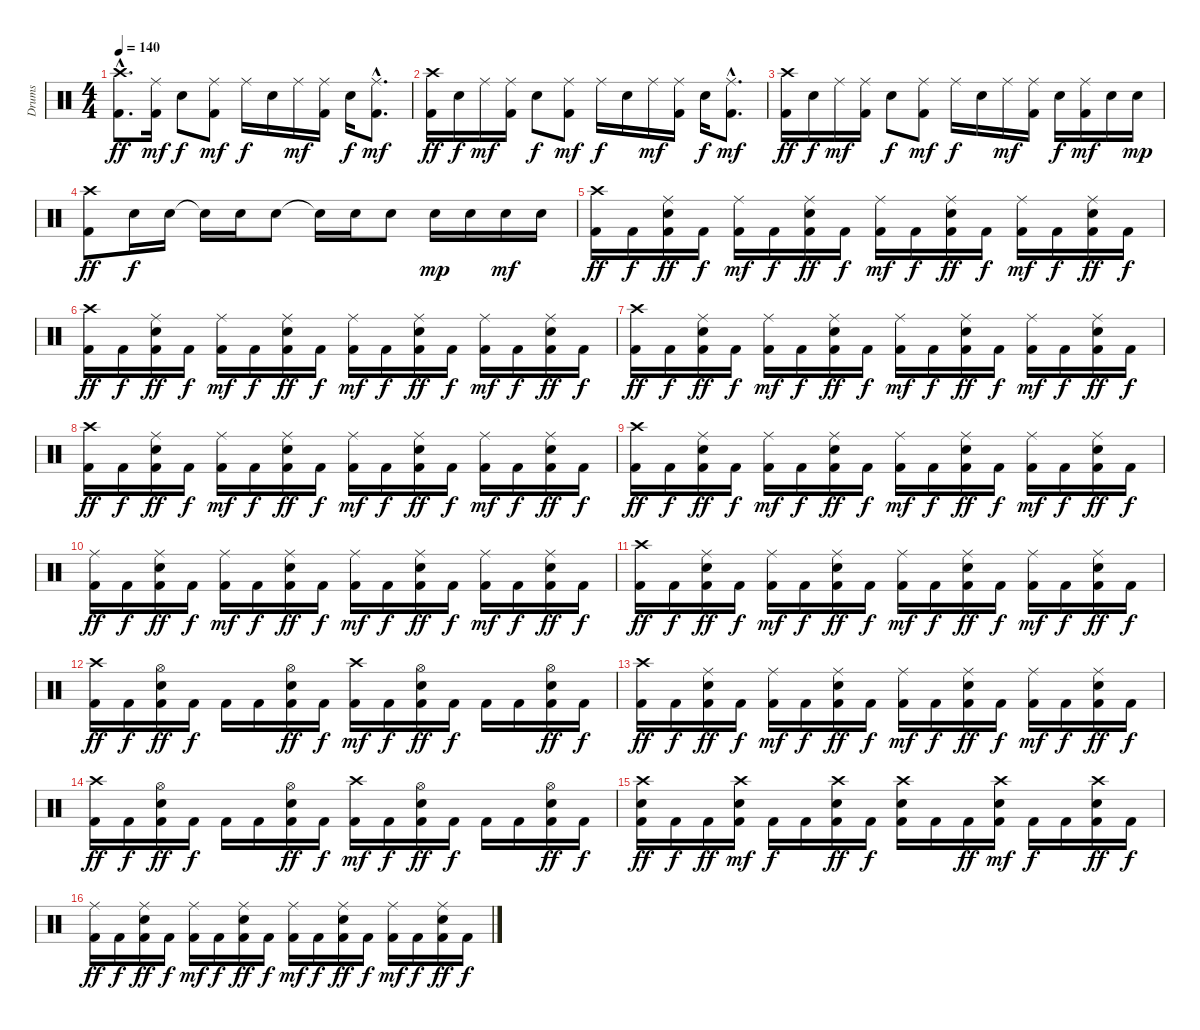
\track ("Drums" "Drums") {instrument percussion}
\staff {score}
\articulation defaults
\ts (4 4)
\tempo 140
\clef neutral
\ks c
("Crash high (hit)"{hac} "Kick (hit) 2"{hac}).8{d dy ff} ("Ride (middle)" "Kick (hit) 2").16{dy mf} "Electric Snare (hit)".8{dy f} ("Ride (middle)" "Kick (hit) 2").8{dy mf} "Ride (middle)".16{dy f} "Electric Snare (hit)".16 "Ride (middle)".16{dy mf} ("Ride (middle)" "Kick (hit) 2").16 "Electric Snare (hit)".16{dy f} ("Ride (middle)"{hac} "Kick (hit) 2"{hac}).8{d dy mf} |
("Crash high (hit)" "Kick (hit) 2").16{dy ff} "Electric Snare (hit)".16{dy f} "Ride (middle)".16{dy mf} ("Ride (middle)" "Kick (hit) 2").16 "Electric Snare (hit)".8{dy f} ("Ride (middle)" "Kick (hit) 2").8{dy mf} "Ride (middle)".16{dy f} "Electric Snare (hit)".16 "Ride (middle)".16{dy mf} ("Ride (middle)" "Kick (hit) 2").16 "Electric Snare (hit)".16{dy f} ("Ride (middle)"{hac} "Kick (hit) 2"{hac}).8{d dy mf} |
("Crash high (hit)" "Kick (hit) 2").16{dy ff} "Electric Snare (hit)".16{dy f} "Ride (middle)".16{dy mf} ("Ride (middle)" "Kick (hit) 2").16 "Electric Snare (hit)".8{dy f} ("Ride (middle)" "Kick (hit) 2").8{dy mf} "Ride (middle)".16{dy f} "Electric Snare (hit)".16 "Ride (middle)".16{dy mf} ("Ride (middle)" "Kick (hit) 2").16 "Electric Snare (hit)".16{dy f} ("Ride (middle)" "Kick (hit) 2").16{dy mf} "Electric Snare (hit)".16 "Electric Snare (hit)".16{dy mp} |
("Crash high (hit)" "Kick (hit) 2").8{dy ff} "Electric Snare (hit)".16{dy f} "Electric Snare (hit)".16 "Snare (hit)"{t}.16 "Electric Snare (hit)".16 "Electric Snare (hit)".8 "Snare (hit)"{t}.16 "Electric Snare (hit)".16 "Electric Snare (hit)".8 "Electric Snare (hit)".16{dy mp} "Electric Snare (hit)".16 "Electric Snare (hit)".16{dy mf} "Electric Snare (hit)".16 |
("Crash high (hit)" "Kick (hit) 2").16{dy ff} "Kick (hit) 2".16{dy f} ("Ride (middle)" "Electric Snare (hit)" "Kick (hit) 2").16{dy ff} "Kick (hit) 2".16{dy f} ("Ride (middle)" "Kick (hit) 2").16{dy mf} "Kick (hit) 2".16{dy f} ("Ride (middle)" "Electric Snare (hit)" "Kick (hit) 2").16{dy ff} "Kick (hit) 2".16{dy f} ("Ride (middle)" "Kick (hit) 2").16{dy mf} "Kick (hit) 2".16{dy f} ("Ride (middle)" "Electric Snare (hit)" "Kick (hit) 2").16{dy ff} "Kick (hit) 2".16{dy f} ("Ride (middle)" "Kick (hit) 2").16{dy mf} "Kick (hit) 2".16{dy f} ("Ride (middle)" "Electric Snare (hit)" "Kick (hit) 2").16{dy ff} "Kick (hit) 2".16{dy f} |
("Crash high (hit)" "Kick (hit) 2").16{dy ff} "Kick (hit) 2".16{dy f} ("Ride (middle)" "Electric Snare (hit)" "Kick (hit) 2").16{dy ff} "Kick (hit) 2".16{dy f} ("Ride (middle)" "Kick (hit) 2").16{dy mf} "Kick (hit) 2".16{dy f} ("Ride (middle)" "Electric Snare (hit)" "Kick (hit) 2").16{dy ff} "Kick (hit) 2".16{dy f} ("Ride (middle)" "Kick (hit) 2").16{dy mf} "Kick (hit) 2".16{dy f} ("Ride (middle)" "Electric Snare (hit)" "Kick (hit) 2").16{dy ff} "Kick (hit) 2".16{dy f} ("Ride (middle)" "Kick (hit) 2").16{dy mf} "Kick (hit) 2".16{dy f} ("Ride (middle)" "Electric Snare (hit)" "Kick (hit) 2").16{dy ff} "Kick (hit) 2".16{dy f} |
("Crash high (hit)" "Kick (hit) 2").16{dy ff} "Kick (hit) 2".16{dy f} ("Ride (middle)" "Electric Snare (hit)" "Kick (hit) 2").16{dy ff} "Kick (hit) 2".16{dy f} ("Ride (middle)" "Kick (hit) 2").16{dy mf} "Kick (hit) 2".16{dy f} ("Ride (middle)" "Electric Snare (hit)" "Kick (hit) 2").16{dy ff} "Kick (hit) 2".16{dy f} ("Ride (middle)" "Kick (hit) 2").16{dy mf} "Kick (hit) 2".16{dy f} ("Ride (middle)" "Electric Snare (hit)" "Kick (hit) 2").16{dy ff} "Kick (hit) 2".16{dy f} ("Ride (middle)" "Kick (hit) 2").16{dy mf} "Kick (hit) 2".16{dy f} ("Ride (middle)" "Electric Snare (hit)" "Kick (hit) 2").16{dy ff} "Kick (hit) 2".16{dy f} |
("Crash high (hit)" "Kick (hit) 2").16{dy ff} "Kick (hit) 2".16{dy f} ("Ride (middle)" "Electric Snare (hit)" "Kick (hit) 2").16{dy ff} "Kick (hit) 2".16{dy f} ("Ride (middle)" "Kick (hit) 2").16{dy mf} "Kick (hit) 2".16{dy f} ("Ride (middle)" "Electric Snare (hit)" "Kick (hit) 2").16{dy ff} "Kick (hit) 2".16{dy f} ("Ride (middle)" "Kick (hit) 2").16{dy mf} "Kick (hit) 2".16{dy f} ("Ride (middle)" "Electric Snare (hit)" "Kick (hit) 2").16{dy ff} "Kick (hit) 2".16{dy f} ("Ride (middle)" "Kick (hit) 2").16{dy mf} "Kick (hit) 2".16{dy f} ("Ride (middle)" "Electric Snare (hit)" "Kick (hit) 2").16{dy ff} "Kick (hit) 2".16{dy f} |
("Crash high (hit)" "Kick (hit) 2").16{dy ff} "Kick (hit) 2".16{dy f} ("Ride (middle)" "Electric Snare (hit)" "Kick (hit) 2").16{dy ff} "Kick (hit) 2".16{dy f} ("Ride (middle)" "Kick (hit) 2").16{dy mf} "Kick (hit) 2".16{dy f} ("Ride (middle)" "Electric Snare (hit)" "Kick (hit) 2").16{dy ff} "Kick (hit) 2".16{dy f} ("Ride (middle)" "Kick (hit) 2").16{dy mf} "Kick (hit) 2".16{dy f} ("Ride (middle)" "Electric Snare (hit)" "Kick (hit) 2").16{dy ff} "Kick (hit) 2".16{dy f} ("Ride (middle)" "Kick (hit) 2").16{dy mf} "Kick (hit) 2".16{dy f} ("Ride (middle)" "Electric Snare (hit)" "Kick (hit) 2").16{dy ff} "Kick (hit) 2".16{dy f} |
("Ride (middle)" "Kick (hit) 2").16{dy ff} "Kick (hit) 2".16{dy f} ("Ride (middle)" "Electric Snare (hit)" "Kick (hit) 2").16{dy ff} "Kick (hit) 2".16{dy f} ("Ride (middle)" "Kick (hit) 2").16{dy mf} "Kick (hit) 2".16{dy f} ("Ride (middle)" "Electric Snare (hit)" "Kick (hit) 2").16{dy ff} "Kick (hit) 2".16{dy f} ("Ride (middle)" "Kick (hit) 2").16{dy mf} "Kick (hit) 2".16{dy f} ("Ride (middle)" "Electric Snare (hit)" "Kick (hit) 2").16{dy ff} "Kick (hit) 2".16{dy f} ("Ride (middle)" "Kick (hit) 2").16{dy mf} "Kick (hit) 2".16{dy f} ("Ride (middle)" "Electric Snare (hit)" "Kick (hit) 2").16{dy ff} "Kick (hit) 2".16{dy f} |
("Crash high (hit)" "Kick (hit) 2").16{dy ff} "Kick (hit) 2".16{dy f} ("Ride (middle)" "Electric Snare (hit)" "Kick (hit) 2").16{dy ff} "Kick (hit) 2".16{dy f} ("Ride (middle)" "Kick (hit) 2").16{dy mf} "Kick (hit) 2".16{dy f} ("Ride (middle)" "Electric Snare (hit)" "Kick (hit) 2").16{dy ff} "Kick (hit) 2".16{dy f} ("Ride (middle)" "Kick (hit) 2").16{dy mf} "Kick (hit) 2".16{dy f} ("Ride (middle)" "Electric Snare (hit)" "Kick (hit) 2").16{dy ff} "Kick (hit) 2".16{dy f} ("Ride (middle)" "Kick (hit) 2").16{dy mf} "Kick (hit) 2".16{dy f} ("Ride (middle)" "Electric Snare (hit)" "Kick (hit) 2").16{dy ff} "Kick (hit) 2".16{dy f} |
("Crash high (hit)" "Kick (hit) 2").16{dy ff} "Kick (hit) 2".16{dy f} ("Hi-Hat (open)" "Electric Snare (hit)" "Kick (hit) 2").16{dy ff} "Kick (hit) 2".16{dy f} "Kick (hit) 2".16 "Kick (hit) 2".16 ("Hi-Hat (open)" "Electric Snare (hit)" "Kick (hit) 2").16{dy ff} "Kick (hit) 2".16{dy f} ("Crash high (hit)" "Kick (hit) 2").16{dy mf} "Kick (hit) 2".16{dy f} ("Hi-Hat (open)" "Electric Snare (hit)" "Kick (hit) 2").16{dy ff} "Kick (hit) 2".16{dy f} "Kick (hit) 2".16 "Kick (hit) 2".16 ("Hi-Hat (open)" "Electric Snare (hit)" "Kick (hit) 2").16{dy ff} "Kick (hit) 2".16{dy f} |
("Crash high (hit)" "Kick (hit) 2").16{dy ff} "Kick (hit) 2".16{dy f} ("Ride (middle)" "Electric Snare (hit)" "Kick (hit) 2").16{dy ff} "Kick (hit) 2".16{dy f} ("Ride (middle)" "Kick (hit) 2").16{dy mf} "Kick (hit) 2".16{dy f} ("Ride (middle)" "Electric Snare (hit)" "Kick (hit) 2").16{dy ff} "Kick (hit) 2".16{dy f} ("Ride (middle)" "Kick (hit) 2").16{dy mf} "Kick (hit) 2".16{dy f} ("Ride (middle)" "Electric Snare (hit)" "Kick (hit) 2").16{dy ff} "Kick (hit) 2".16{dy f} ("Ride (middle)" "Kick (hit) 2").16{dy mf} "Kick (hit) 2".16{dy f} ("Ride (middle)" "Electric Snare (hit)" "Kick (hit) 2").16{dy ff} "Kick (hit) 2".16{dy f} |
("Crash high (hit)" "Kick (hit) 2").16{dy ff} "Kick (hit) 2".16{dy f} ("Hi-Hat (open)" "Electric Snare (hit)" "Kick (hit) 2").16{dy ff} "Kick (hit) 2".16{dy f} "Kick (hit) 2".16 "Kick (hit) 2".16 ("Hi-Hat (open)" "Electric Snare (hit)" "Kick (hit) 2").16{dy ff} "Kick (hit) 2".16{dy f} ("Crash high (hit)" "Kick (hit) 2").16{dy mf} "Kick (hit) 2".16{dy f} ("Hi-Hat (open)" "Electric Snare (hit)" "Kick (hit) 2").16{dy ff} "Kick (hit) 2".16{dy f} "Kick (hit) 2".16 "Kick (hit) 2".16 ("Hi-Hat (open)" "Electric Snare (hit)" "Kick (hit) 2").16{dy ff} "Kick (hit) 2".16{dy f} |
("Crash high (hit)" "Electric Snare (hit)" "Kick (hit) 2").16{dy ff} "Kick (hit) 2".16{dy f} "Kick (hit) 2".16{dy ff} ("Crash high (hit)" "Electric Snare (hit)" "Kick (hit) 2").16{dy mf} "Kick (hit) 2".16{dy f} "Kick (hit) 2".16 ("Crash high (hit)" "Electric Snare (hit)" "Kick (hit) 2").16{dy ff} "Kick (hit) 2".16{dy f} ("Crash high (hit)" "Electric Snare (hit)" "Kick (hit) 2").16 "Kick (hit) 2".16 "Kick (hit) 2".16{dy ff} ("Crash high (hit)" "Electric Snare (hit)" "Kick (hit) 2").16{dy mf} "Kick (hit) 2".16{dy f} "Kick (hit) 2".16 ("Crash high (hit)" "Electric Snare (hit)" "Kick (hit) 2").16{dy ff} "Kick (hit) 2".16{dy f} |
("Ride (middle)" "Kick (hit) 2").16{dy ff} "Kick (hit) 2".16{dy f} ("Ride (middle)" "Electric Snare (hit)" "Kick (hit) 2").16{dy ff} "Kick (hit) 2".16{dy f} ("Ride (middle)" "Kick (hit) 2").16{dy mf} "Kick (hit) 2".16{dy f} ("Ride (middle)" "Electric Snare (hit)" "Kick (hit) 2").16{dy ff} "Kick (hit) 2".16{dy f} ("Ride (middle)" "Kick (hit) 2").16{dy mf} "Kick (hit) 2".16{dy f} ("Ride (middle)" "Electric Snare (hit)" "Kick (hit) 2").16{dy ff} "Kick (hit) 2".16{dy f} ("Ride (middle)" "Kick (hit) 2").16{dy mf} "Kick (hit) 2".16{dy f} ("Ride (middle)" "Electric Snare (hit)" "Kick (hit) 2").16{dy ff} "Kick (hit) 2".16{dy f}
